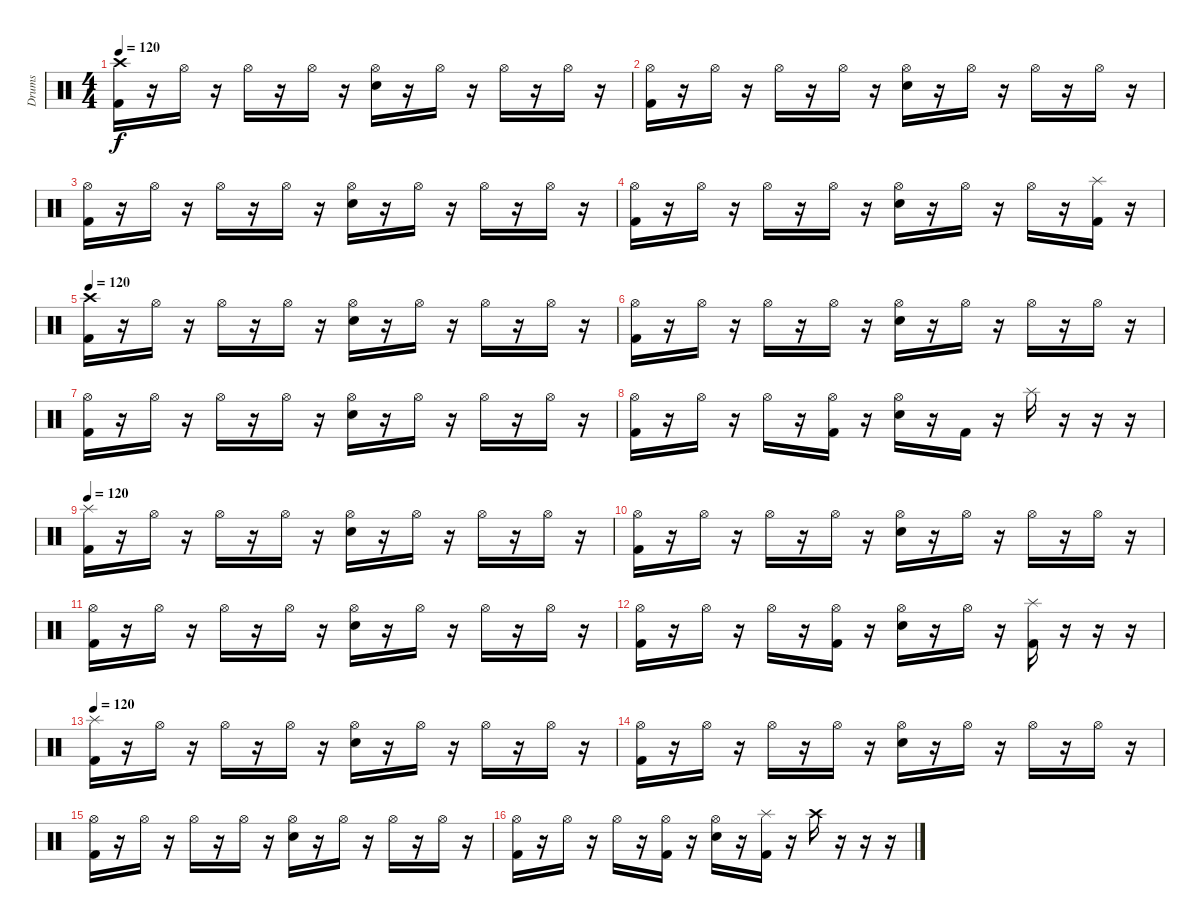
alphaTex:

\track ("Drums" "Drums") {instrument percussion}
\staff {score}
\articulation defaults
\ts (4 4)
\tempo 120
\clef neutral
\ks c
("Crash high (hit)" "Kick (hit) 2").16{dy f} r.16 "Hi-Hat (open)".16 r.16 "Hi-Hat (open)".16 r.16 "Hi-Hat (open)".16 r.16 ("Hi-Hat (open)" "Electric Snare (hit)").16 r.16 "Hi-Hat (open)".16 r.16 "Hi-Hat (open)".16 r.16 "Hi-Hat (open)".16 r.16 |
("Hi-Hat (open)" "Kick (hit) 2").16 r.16 "Hi-Hat (open)".16 r.16 "Hi-Hat (open)".16 r.16 "Hi-Hat (open)".16 r.16 ("Hi-Hat (open)" "Electric Snare (hit)").16 r.16 "Hi-Hat (open)".16 r.16 "Hi-Hat (open)".16 r.16 "Hi-Hat (open)".16 r.16 |
("Hi-Hat (open)" "Kick (hit) 2").16 r.16 "Hi-Hat (open)".16 r.16 "Hi-Hat (open)".16 r.16 "Hi-Hat (open)".16 r.16 ("Hi-Hat (open)" "Electric Snare (hit)").16 r.16 "Hi-Hat (open)".16 r.16 "Hi-Hat (open)".16 r.16 "Hi-Hat (open)".16 r.16 |
("Hi-Hat (open)" "Kick (hit) 2").16 r.16 "Hi-Hat (open)".16 r.16 "Hi-Hat (open)".16 r.16 "Hi-Hat (open)".16 r.16 ("Hi-Hat (open)" "Electric Snare (hit)").16 r.16 "Hi-Hat (open)".16 r.16 "Hi-Hat (open)".16 r.16 ("Splash (hit)" "Kick (hit) 2").16 r.16 |
\tempo 120
("Crash high (hit)" "Kick (hit) 2").16 r.16 "Hi-Hat (open)".16 r.16 "Hi-Hat (open)".16 r.16 "Hi-Hat (open)".16 r.16 ("Hi-Hat (open)" "Electric Snare (hit)").16 r.16 "Hi-Hat (open)".16 r.16 "Hi-Hat (open)".16 r.16 "Hi-Hat (open)".16 r.16 |
("Hi-Hat (open)" "Kick (hit) 2").16 r.16 "Hi-Hat (open)".16 r.16 "Hi-Hat (open)".16 r.16 "Hi-Hat (open)".16 r.16 ("Hi-Hat (open)" "Electric Snare (hit)").16 r.16 "Hi-Hat (open)".16 r.16 "Hi-Hat (open)".16 r.16 "Hi-Hat (open)".16 r.16 |
("Hi-Hat (open)" "Kick (hit) 2").16 r.16 "Hi-Hat (open)".16 r.16 "Hi-Hat (open)".16 r.16 "Hi-Hat (open)".16 r.16 ("Hi-Hat (open)" "Electric Snare (hit)").16 r.16 "Hi-Hat (open)".16 r.16 "Hi-Hat (open)".16 r.16 "Hi-Hat (open)".16 r.16 |
("Hi-Hat (open)" "Kick (hit) 2").16 r.16 "Hi-Hat (open)".16 r.16 "Hi-Hat (open)".16 r.16 ("Hi-Hat (open)" "Kick (hit) 2").16 r.16 ("Hi-Hat (open)" "Electric Snare (hit)").16 r.16 "Kick (hit) 2".16 r.16 "Splash (hit)".16 r.16 r.16 r.16 |
\tempo 120
("Splash (hit)" "Kick (hit) 2").16 r.16 "Hi-Hat (open)".16 r.16 "Hi-Hat (open)".16 r.16 "Hi-Hat (open)".16 r.16 ("Hi-Hat (open)" "Electric Snare (hit)").16 r.16 "Hi-Hat (open)".16 r.16 "Hi-Hat (open)".16 r.16 "Hi-Hat (open)".16 r.16 |
("Hi-Hat (open)" "Kick (hit) 2").16 r.16 "Hi-Hat (open)".16 r.16 "Hi-Hat (open)".16 r.16 "Hi-Hat (open)".16 r.16 ("Hi-Hat (open)" "Electric Snare (hit)").16 r.16 "Hi-Hat (open)".16 r.16 "Hi-Hat (open)".16 r.16 "Hi-Hat (open)".16 r.16 |
("Hi-Hat (open)" "Kick (hit) 2").16 r.16 "Hi-Hat (open)".16 r.16 "Hi-Hat (open)".16 r.16 "Hi-Hat (open)".16 r.16 ("Hi-Hat (open)" "Electric Snare (hit)").16 r.16 "Hi-Hat (open)".16 r.16 "Hi-Hat (open)".16 r.16 "Hi-Hat (open)".16 r.16 |
("Hi-Hat (open)" "Kick (hit) 2").16 r.16 "Hi-Hat (open)".16 r.16 "Hi-Hat (open)".16 r.16 ("Hi-Hat (open)" "Kick (hit) 2").16 r.16 ("Hi-Hat (open)" "Electric Snare (hit)").16 r.16 "Hi-Hat (open)".16 r.16 ("Splash (hit)" "Kick (hit) 2").16 r.16 r.16 r.16 |
\tempo 120
("Splash (hit)" "Kick (hit) 2").16 r.16 "Hi-Hat (open)".16 r.16 "Hi-Hat (open)".16 r.16 "Hi-Hat (open)".16 r.16 ("Hi-Hat (open)" "Electric Snare (hit)").16 r.16 "Hi-Hat (open)".16 r.16 "Hi-Hat (open)".16 r.16 "Hi-Hat (open)".16 r.16 |
("Hi-Hat (open)" "Kick (hit) 2").16 r.16 "Hi-Hat (open)".16 r.16 "Hi-Hat (open)".16 r.16 "Hi-Hat (open)".16 r.16 ("Hi-Hat (open)" "Electric Snare (hit)").16 r.16 "Hi-Hat (open)".16 r.16 "Hi-Hat (open)".16 r.16 "Hi-Hat (open)".16 r.16 |
("Hi-Hat (open)" "Kick (hit) 2").16 r.16 "Hi-Hat (open)".16 r.16 "Hi-Hat (open)".16 r.16 "Hi-Hat (open)".16 r.16 ("Hi-Hat (open)" "Electric Snare (hit)").16 r.16 "Hi-Hat (open)".16 r.16 "Hi-Hat (open)".16 r.16 "Hi-Hat (open)".16 r.16 |
("Hi-Hat (open)" "Kick (hit) 2").16 r.16 "Hi-Hat (open)".16 r.16 "Hi-Hat (open)".16 r.16 ("Hi-Hat (open)" "Kick (hit) 2").16 r.16 ("Hi-Hat (open)" "Electric Snare (hit)").16 r.16 ("Splash (hit)" "Kick (hit) 2").16 r.16 "Crash high (hit)".16 r.16 r.16 r.16
